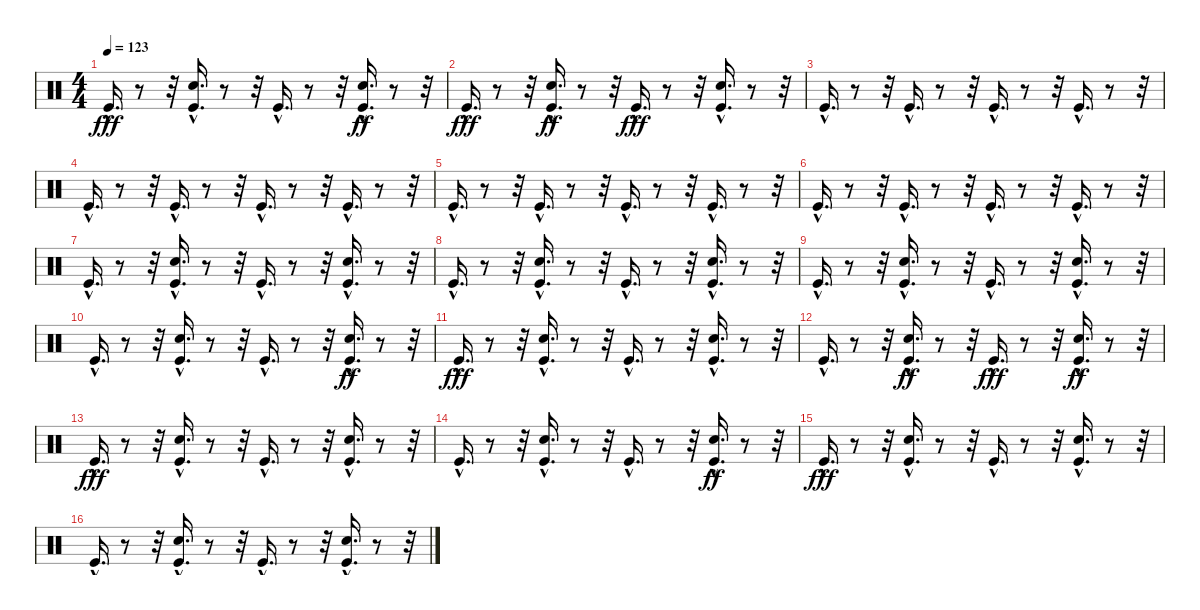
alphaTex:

\track "" {instrument percussion}
\staff {score}
\articulation defaults
\ts (4 4)
\tempo 123
\clef neutral
\ks c "Kick (hit)"{hac}.16{d dy fff}
r.8 r.32 ("Kick (hit)"{hac} "Snare (hit) 2").16{d} r.8 r.32 "Kick (hit)"{hac}.16{d} r.8 r.32 ("Kick (hit)"{hac} "Snare (hit) 2").16{d dy ff} r.8 r.32 |
"Kick (hit)"{hac}.16{d dy fff} r.8 r.32 ("Kick (hit)"{hac} "Snare (hit) 2").16{d dy ff} r.8 r.32 "Kick (hit)"{hac}.16{d dy fff} r.8 r.32 ("Snare (hit) 2" "Kick (hit)"{hac}).16{d} r.8 r.32 |
"Kick (hit)"{hac}.16{d} r.8 r.32 "Kick (hit)"{hac}.16{d} r.8 r.32 "Kick (hit)"{hac}.16{d} r.8 r.32 "Kick (hit)"{hac}.16{d} r.8 r.32 |
"Kick (hit)"{hac}.16{d} r.8 r.32 "Kick (hit)"{hac}.16{d} r.8 r.32 "Kick (hit)"{hac}.16{d} r.8 r.32 "Kick (hit)"{hac}.16{d} r.8 r.32 |
"Kick (hit)"{hac}.16{d} r.8 r.32 "Kick (hit)"{hac}.16{d} r.8 r.32 "Kick (hit)"{hac}.16{d} r.8 r.32 "Kick (hit)"{hac}.16{d} r.8 r.32 |
"Kick (hit)"{hac}.16{d} r.8 r.32 "Kick (hit)"{hac}.16{d} r.8 r.32 "Kick (hit)"{hac}.16{d} r.8 r.32 "Kick (hit)"{hac}.16{d} r.8 r.32 |
"Kick (hit)"{hac}.16{d} r.8 r.32 ("Snare (hit) 2" "Kick (hit)"{hac}).16{d} r.8 r.32 "Kick (hit)"{hac}.16{d} r.8 r.32 ("Kick (hit)"{hac} "Snare (hit) 2").16{d} r.8 r.32 |
"Kick (hit)"{hac}.16{d} r.8 r.32 ("Snare (hit) 2" "Kick (hit)"{hac}).16{d} r.8 r.32 "Kick (hit)"{hac}.16{d} r.8 r.32 ("Snare (hit) 2" "Kick (hit)"{hac}).16{d} r.8 r.32 |
"Kick (hit)"{hac}.16{d} r.8 r.32 ("Snare (hit) 2" "Kick (hit)"{hac}).16{d} r.8 r.32 "Kick (hit)"{hac}.16{d} r.8 r.32 ("Snare (hit) 2" "Kick (hit)"{hac}).16{d} r.8 r.32 |
"Kick (hit)"{hac}.16{d} r.8 r.32 ("Kick (hit)"{hac} "Snare (hit) 2").16{d} r.8 r.32 "Kick (hit)"{hac}.16{d} r.8 r.32 ("Kick (hit)"{hac} "Snare (hit) 2").16{d dy ff} r.8 r.32 |
"Kick (hit)"{hac}.16{d dy fff} r.8 r.32 ("Snare (hit) 2" "Kick (hit)"{hac}).16{d} r.8 r.32 "Kick (hit)"{hac}.16{d} r.8 r.32 ("Snare (hit) 2" "Kick (hit)"{hac}).16{d} r.8 r.32 |
"Kick (hit)"{hac}.16{d} r.8 r.32 ("Kick (hit)"{hac} "Snare (hit) 2").16{d dy ff} r.8 r.32 "Kick (hit)"{hac}.16{d dy fff} r.8 r.32 ("Kick (hit)"{hac} "Snare (hit) 2").16{d dy ff} r.8 r.32 |
"Kick (hit)"{hac}.16{d dy fff} r.8 r.32 ("Snare (hit) 2" "Kick (hit)"{hac}).16{d} r.8 r.32 "Kick (hit)"{hac}.16{d} r.8 r.32 ("Snare (hit) 2" "Kick (hit)"{hac}).16{d} r.8 r.32 |
"Kick (hit)"{hac}.16{d} r.8 r.32 ("Snare (hit) 2" "Kick (hit)"{hac}).16{d} r.8 r.32 "Kick (hit)"{hac}.16{d} r.8 r.32 ("Kick (hit)"{hac} "Snare (hit) 2").16{d dy ff} r.8 r.32 |
"Kick (hit)"{hac}.16{d dy fff} r.8 r.32 ("Kick (hit)"{hac} "Snare (hit) 2").16{d} r.8 r.32 "Kick (hit)"{hac}.16{d} r.8 r.32 ("Snare (hit) 2" "Kick (hit)"{hac}).16{d} r.8 r.32 |
"Kick (hit)"{hac}.16{d} r.8 r.32 ("Kick (hit)"{hac} "Snare (hit) 2").16{d} r.8 r.32 "Kick (hit)"{hac}.16{d} r.8 r.32 ("Kick (hit)"{hac} "Snare (hit) 2").16{d} r.8 r.32
